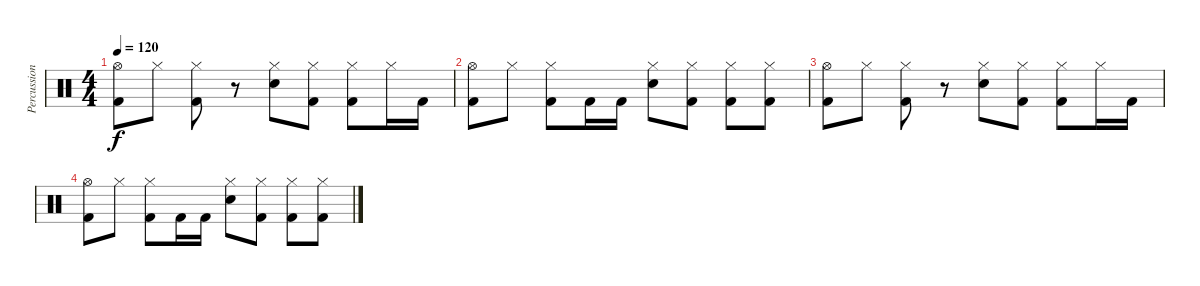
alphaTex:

\track ("Percussions" "Percussion") {instrument percussion}
\staff {score}
\articulation defaults
\ts (4 4)
\tempo 120
\clef neutral
\ks c
("Hi-Hat (open)" "Kick (hit) 2").8{dy f} "Hi-Hat (closed)".8 ("Hi-Hat (closed)" "Kick (hit) 2").8 r.8 ("Hi-Hat (closed)" "Snare (hit) 2").8 ("Hi-Hat (closed)" "Kick (hit) 2").8 ("Hi-Hat (closed)" "Kick (hit) 2").8 "Hi-Hat (closed)".16 "Kick (hit) 2".16 |
("Hi-Hat (open)" "Kick (hit) 2").8 "Hi-Hat (closed)".8 ("Hi-Hat (closed)" "Kick (hit) 2").8 "Kick (hit) 2".16 "Kick (hit) 2".16 ("Hi-Hat (closed)" "Snare (hit) 2").8 ("Hi-Hat (closed)" "Kick (hit) 2").8 ("Hi-Hat (closed)" "Kick (hit) 2").8 ("Hi-Hat (closed)" "Kick (hit) 2").8 |
("Hi-Hat (open)" "Kick (hit) 2").8 "Hi-Hat (closed)".8 ("Hi-Hat (closed)" "Kick (hit) 2").8 r.8 ("Hi-Hat (closed)" "Snare (hit) 2").8 ("Hi-Hat (closed)" "Kick (hit) 2").8 ("Hi-Hat (closed)" "Kick (hit) 2").8 "Hi-Hat (closed)".16 "Kick (hit) 2".16 |
("Hi-Hat (open)" "Kick (hit) 2").8 "Hi-Hat (closed)".8 ("Hi-Hat (closed)" "Kick (hit) 2").8 "Kick (hit) 2".16 "Kick (hit) 2".16 ("Hi-Hat (closed)" "Snare (hit) 2").8 ("Hi-Hat (closed)" "Kick (hit) 2").8 ("Hi-Hat (closed)" "Kick (hit) 2").8 ("Hi-Hat (closed)" "Kick (hit) 2").8
